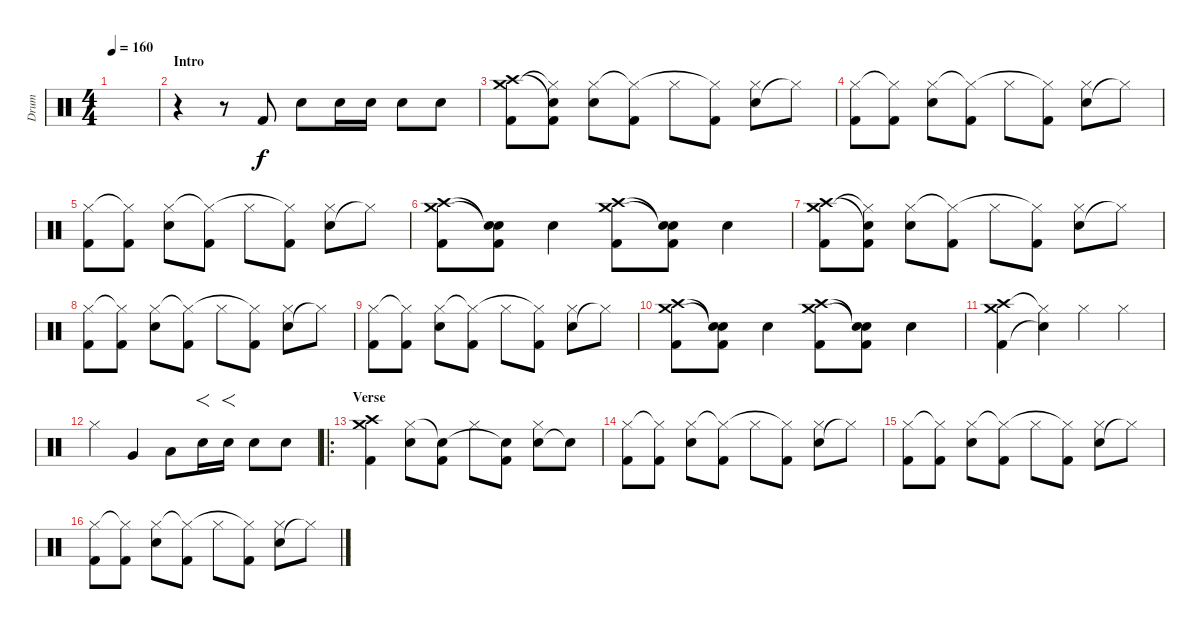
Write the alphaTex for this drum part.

\track ("Drum" "Drum") {instrument percussion}
\staff {score}
\articulation defaults
\ts (4 4)
\tempo 160
\clef neutral
\ks c
|
\section ("" "Intro")
r.4 r.8 "Kick (hit) 2".8 "Electric Snare (hit)".8 "Electric Snare (hit)".16 "Electric Snare (hit)".16 "Electric Snare (hit)".8 "Electric Snare (hit)".8 |
("Kick (hit) 2" "Crash high (hit)" "Crash medium (hit)").8 ("Kick (hit) 2" "Electric Snare (hit)"{t} "Hi-Hat (closed)"{t}).8 ("Electric Snare (hit)" "Hi-Hat (closed)").8 ("Kick (hit) 2" "Hi-Hat (closed)"{t}).8 "Hi-Hat (closed)".8 ("Kick (hit) 2" "Hi-Hat (closed)"{t}).8 ("Electric Snare (hit)" "Hi-Hat (closed)").8 "Hi-Hat (closed)"{t}.8 |
("Kick (hit) 2" "Hi-Hat (closed)").8 ("Kick (hit) 2" "Hi-Hat (closed)"{t}).8 ("Electric Snare (hit)" "Hi-Hat (closed)").8 ("Kick (hit) 2" "Hi-Hat (closed)"{t}).8 "Hi-Hat (closed)".8 ("Kick (hit) 2" "Hi-Hat (closed)"{t}).8 ("Electric Snare (hit)" "Hi-Hat (closed)").8 "Hi-Hat (closed)"{t}.8 |
("Kick (hit) 2" "Hi-Hat (closed)").8 ("Kick (hit) 2" "Hi-Hat (closed)"{t}).8 ("Electric Snare (hit)" "Hi-Hat (closed)").8 ("Kick (hit) 2" "Hi-Hat (closed)"{t}).8 "Hi-Hat (closed)".8 ("Kick (hit) 2" "Hi-Hat (closed)"{t}).8 ("Electric Snare (hit)" "Hi-Hat (closed)").8 "Hi-Hat (closed)"{t}.8 |
("Kick (hit) 2" "Crash high (hit)" "Crash medium (hit)").8 ("Kick (hit) 2" "Electric Snare (hit)"{t} "Snare (hit)"{t}).8 "Electric Snare (hit)".4 ("Kick (hit) 2" "Crash high (hit)" "Crash medium (hit)").8 ("Kick (hit) 2" "Snare (hit)"{t} "Snare (hit)"{t}).8 "Electric Snare (hit)".4 |
("Kick (hit) 2" "Crash high (hit)" "Crash medium (hit)").8 ("Kick (hit) 2" "Electric Snare (hit)"{t} "Hi-Hat (closed)"{t}).8 ("Electric Snare (hit)" "Hi-Hat (closed)").8 ("Kick (hit) 2" "Hi-Hat (closed)"{t}).8 "Hi-Hat (closed)".8 ("Kick (hit) 2" "Hi-Hat (closed)"{t}).8 ("Electric Snare (hit)" "Hi-Hat (closed)").8 "Hi-Hat (closed)"{t}.8 |
("Kick (hit) 2" "Hi-Hat (closed)").8 ("Kick (hit) 2" "Hi-Hat (closed)"{t}).8 ("Electric Snare (hit)" "Hi-Hat (closed)").8 ("Kick (hit) 2" "Hi-Hat (closed)"{t}).8 "Hi-Hat (closed)".8 ("Kick (hit) 2" "Hi-Hat (closed)"{t}).8 ("Electric Snare (hit)" "Hi-Hat (closed)").8 "Hi-Hat (closed)"{t}.8 |
("Kick (hit) 2" "Hi-Hat (closed)").8 ("Kick (hit) 2" "Hi-Hat (closed)"{t}).8 ("Electric Snare (hit)" "Hi-Hat (closed)").8 ("Kick (hit) 2" "Hi-Hat (closed)"{t}).8 "Hi-Hat (closed)".8 ("Kick (hit) 2" "Hi-Hat (closed)"{t}).8 ("Electric Snare (hit)" "Hi-Hat (closed)").8 "Hi-Hat (closed)"{t}.8 |
("Kick (hit) 2" "Crash high (hit)" "Crash medium (hit)").8 ("Kick (hit) 2" "Electric Snare (hit)"{t} "Snare (hit)"{t}).8 "Electric Snare (hit)".4 ("Kick (hit) 2" "Crash high (hit)" "Crash medium (hit)").8 ("Kick (hit) 2" "Snare (hit)"{t} "Snare (hit)"{t}).8 "Electric Snare (hit)".4 |
("Kick (hit) 2" "Crash high (hit)" "Crash medium (hit)").4 ("Snare (hit)"{t} "Hi-Hat (closed)"{t}).4 "Hi-Hat (closed)".4 "Hi-Hat (closed)".4 |
"Hi-Hat (closed)".4 "Very Low Tom (hit)".4 "Low Tom (hit)".8 "Electric Snare (hit)".16{f} "Electric Snare (hit)".16{f} "Electric Snare (hit)".8 "Electric Snare (hit)".8 |
\ro
\section ("" "Verse")
("Kick (hit) 2" "Crash high (hit)" "Crash medium (hit)").4 ("Electric Snare (hit)" "Hi-Hat (closed)").8 ("Kick (hit) 2" "Snare (hit)"{t}).8 "Hi-Hat (closed)".8 ("Kick (hit) 2" "Snare (hit)"{t}).8 ("Electric Snare (hit)" "Hi-Hat (closed)").8 "Snare (hit)"{t}.8 |
("Kick (hit) 2" "Hi-Hat (closed)").8 ("Kick (hit) 2" "Hi-Hat (closed)"{t}).8 ("Electric Snare (hit)" "Hi-Hat (closed)").8 ("Kick (hit) 2" "Hi-Hat (closed)"{t}).8 "Hi-Hat (closed)".8 ("Kick (hit) 2" "Hi-Hat (closed)"{t}).8 ("Electric Snare (hit)" "Hi-Hat (closed)").8 "Hi-Hat (closed)"{t}.8 |
("Kick (hit) 2" "Hi-Hat (closed)").8 ("Kick (hit) 2" "Hi-Hat (closed)"{t}).8 ("Electric Snare (hit)" "Hi-Hat (closed)").8 ("Kick (hit) 2" "Hi-Hat (closed)"{t}).8 "Hi-Hat (closed)".8 ("Kick (hit) 2" "Hi-Hat (closed)"{t}).8 ("Electric Snare (hit)" "Hi-Hat (closed)").8 "Hi-Hat (closed)"{t}.8 |
("Kick (hit) 2" "Hi-Hat (closed)").8 ("Kick (hit) 2" "Hi-Hat (closed)"{t}).8 ("Electric Snare (hit)" "Hi-Hat (closed)").8 ("Kick (hit) 2" "Hi-Hat (closed)"{t}).8 "Hi-Hat (closed)".8 ("Kick (hit) 2" "Hi-Hat (closed)"{t}).8 ("Electric Snare (hit)" "Hi-Hat (closed)").8 "Hi-Hat (closed)"{t}.8
